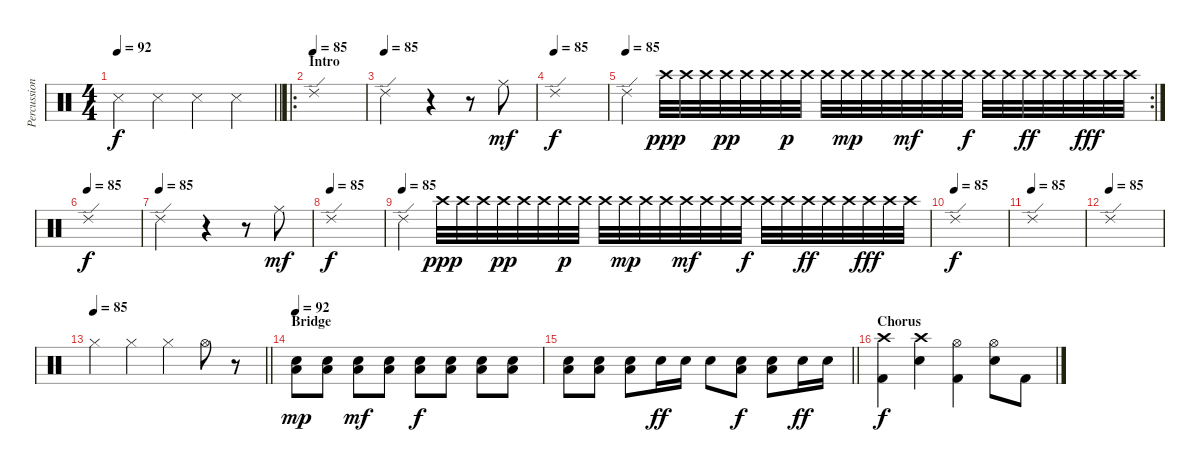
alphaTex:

\track ("Percussion" "Percussion") {instrument percussion}
\staff {score}
\articulation defaults
\ts (4 4)
\tempo 92
\clef neutral
\barLineRight lightlight
\ks c "Snare (side stick) 3".4{dy f} "Snare (side stick) 3".4 "Snare (side stick) 3".4 "Snare (side stick) 3".4
|
\ro
\section ("" "Intro")
\tempo (85)
"Ride (edge) 2".1 |
\tempo (85)
"Ride (edge) 2".2 r.4 r.8 "Ride (middle)".8{dy mf} |
\tempo (85)
"Ride (edge) 2".1{dy f} |
\rc 2
\tempo (85)
"Ride (edge) 2".4 "Crash high (hit)".32{dy ppp} "Crash high (hit)".32 "Crash high (hit)".32 "Crash high (hit)".32{dy pp} "Crash high (hit)".32 "Crash high (hit)".32 "Crash high (hit)".32{dy p} "Crash high (hit)".32 "Crash high (hit)".32 "Crash high (hit)".32{dy mp} "Crash high (hit)".32 "Crash high (hit)".32 "Crash high (hit)".32{dy mf} "Crash high (hit)".32 "Crash high (hit)".32 "Crash high (hit)".32{dy f} "Crash high (hit)".32 "Crash high (hit)".32 "Crash high (hit)".32{dy ff} "Crash high (hit)".32 "Crash high (hit)".32 "Crash high (hit)".32{dy fff} "Crash high (hit)".32 "Crash high (hit)".32 |
\tempo (85)
"Ride (edge) 2".1{dy f} |
\tempo (85)
"Ride (edge) 2".2 r.4 r.8 "Ride (middle)".8{dy mf} |
\tempo (85)
"Ride (edge) 2".1{dy f} |
\tempo (85)
"Ride (edge) 2".4 "Crash high (hit)".32{dy ppp} "Crash high (hit)".32 "Crash high (hit)".32 "Crash high (hit)".32{dy pp} "Crash high (hit)".32 "Crash high (hit)".32 "Crash high (hit)".32{dy p} "Crash high (hit)".32 "Crash high (hit)".32 "Crash high (hit)".32{dy mp} "Crash high (hit)".32 "Crash high (hit)".32 "Crash high (hit)".32{dy mf} "Crash high (hit)".32 "Crash high (hit)".32 "Crash high (hit)".32{dy f} "Crash high (hit)".32 "Crash high (hit)".32 "Crash high (hit)".32{dy ff} "Crash high (hit)".32 "Crash high (hit)".32 "Crash high (hit)".32{dy fff} "Crash high (hit)".32 "Crash high (hit)".32 |
\tempo (85)
"Ride (edge) 2".1{dy f} |
\tempo (85)
"Ride (edge) 2".1 |
\tempo (85)
"Ride (edge) 2".1 |
\tempo 85
\barLineRight lightlight "Hi-Hat (closed)".4 "Hi-Hat (closed)".4 "Hi-Hat (closed)".4 "Hi-Hat (open)".8
r.8 |
\section ("" "Bridge")
\tempo 92
("Low Floor Tom (hit)" "Snare (hit) 2").8{dy mp} ("Low Floor Tom (hit)" "Snare (hit) 2").8 ("Low Floor Tom (hit)" "Snare (hit) 2").8{dy mf} ("Low Floor Tom (hit)" "Snare (hit) 2").8 ("Low Floor Tom (hit)" "Snare (hit) 2").8{dy f} ("Low Floor Tom (hit)" "Snare (hit) 2").8 ("Low Floor Tom (hit)" "Snare (hit) 2").8 ("Low Floor Tom (hit)" "Snare (hit) 2").8 |
\barLineRight lightlight
("Low Floor Tom (hit)" "Snare (hit) 2").8 ("Low Floor Tom (hit)" "Snare (hit) 2").8 ("Low Floor Tom (hit)" "Snare (hit) 2").8 "Snare (hit) 2".16{dy ff} "Snare (hit) 2".16 "Snare (hit) 2".8 ("Low Floor Tom (hit)" "Snare (hit) 2").8{dy f} ("Low Floor Tom (hit)" "Snare (hit) 2").8 "Snare (hit) 2".16{dy ff} "Snare (hit) 2".16 |
\section ("" "Chorus")
("Crash high (hit)" "Kick (hit) 2").4{dy f} ("Crash high (hit)" "Snare (hit) 2").4 ("Hi-Hat (open)" "Kick (hit) 2").4 ("Hi-Hat (open)" "Snare (hit) 2").8 "Kick (hit) 2".8
